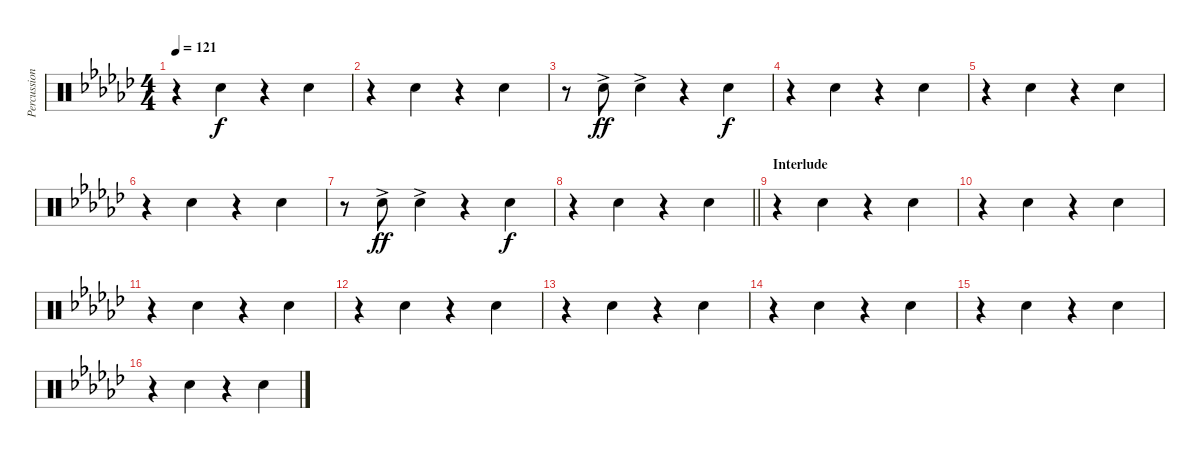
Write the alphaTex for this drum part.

\track ("Percussion" "Percussion") {instrument percussion}
\staff {score}
\articulation defaults
\ts (4 4)
\tempo 121
\clef neutral
\ks ebminor
r.4{dy f} "Hand Clap (hit)".4 r.4 "Hand Clap (hit)".4 |
r.4 "Hand Clap (hit)".4 r.4 "Hand Clap (hit)".4 |
r.8 "Hand Clap (hit)"{ac}.8{dy ff} "Hand Clap (hit)"{ac}.4 r.4 "Hand Clap (hit)".4{dy f} |
r.4 "Hand Clap (hit)".4 r.4 "Hand Clap (hit)".4 |
r.4 "Hand Clap (hit)".4 r.4 "Hand Clap (hit)".4 |
r.4 "Hand Clap (hit)".4 r.4 "Hand Clap (hit)".4 |
r.8 "Hand Clap (hit)"{ac}.8{dy ff} "Hand Clap (hit)"{ac}.4 r.4 "Hand Clap (hit)".4{dy f} |
\barLineRight lightlight
r.4 "Hand Clap (hit)".4 r.4 "Hand Clap (hit)".4 |
\section ("" "Interlude")
r.4 "Hand Clap (hit)".4 r.4 "Hand Clap (hit)".4 |
r.4 "Hand Clap (hit)".4 r.4 "Hand Clap (hit)".4 |
r.4 "Hand Clap (hit)".4 r.4 "Hand Clap (hit)".4 |
r.4 "Hand Clap (hit)".4 r.4 "Hand Clap (hit)".4 |
r.4 "Hand Clap (hit)".4 r.4 "Hand Clap (hit)".4 |
r.4 "Hand Clap (hit)".4 r.4 "Hand Clap (hit)".4 |
r.4 "Hand Clap (hit)".4 r.4 "Hand Clap (hit)".4 |
r.4 "Hand Clap (hit)".4 r.4 "Hand Clap (hit)".4
